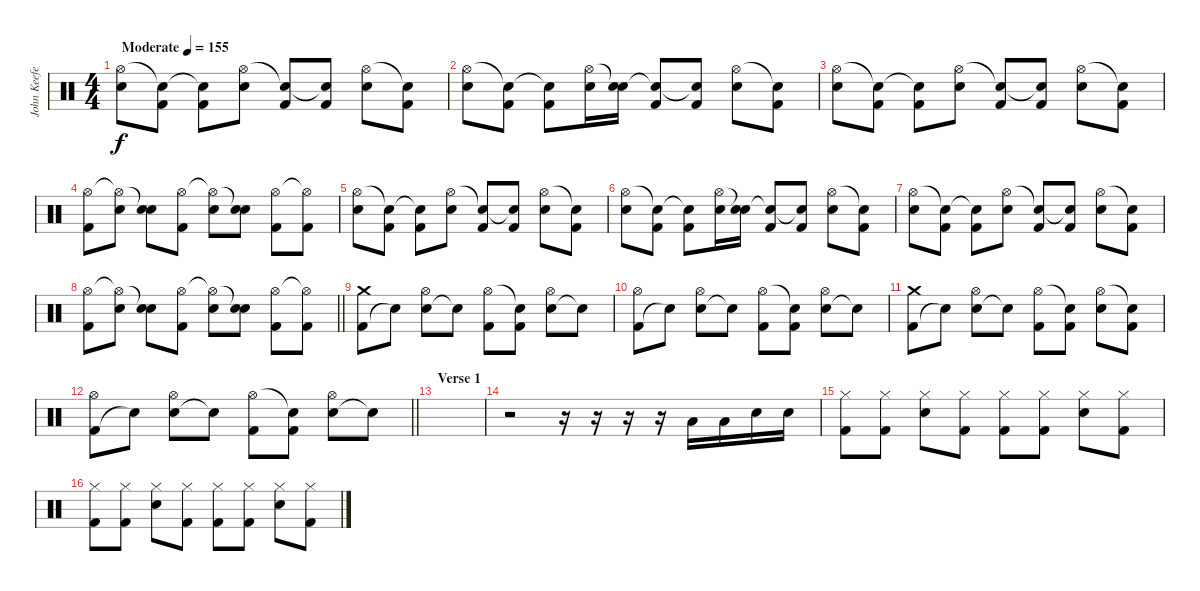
\track ("John Keefe (Percussion)" "John Keefe") {instrument percussion}
\staff {score}
\articulation defaults
\ts (4 4)
\tempo (155 "Moderate")
\clef neutral
\ks c
("Electric Snare (hit)" "Hi-Hat (open)").8{dy f} ("Kick (hit) 2" "Snare (hit)"{t}).8 ("Kick (hit) 2" "Snare (hit)"{t}).8 ("Electric Snare (hit)" "Hi-Hat (open)").8 ("Kick (hit) 2" "Snare (hit)"{t}).8 ("Kick (hit) 2" "Snare (hit)"{t}).8 ("Electric Snare (hit)" "Hi-Hat (open)").8 ("Kick (hit) 2" "Snare (hit)"{t}).8 |
("Electric Snare (hit)" "Hi-Hat (open)").8 ("Kick (hit) 2" "Snare (hit)"{t}).8 ("Kick (hit) 2" "Snare (hit)"{t}).8 ("Electric Snare (hit)" "Hi-Hat (open)").16 ("Electric Snare (hit)" "Snare (hit)"{t}).16 ("Kick (hit) 2" "Snare (hit)"{t}).8 ("Kick (hit) 2" "Snare (hit)"{t}).8 ("Electric Snare (hit)" "Hi-Hat (open)").8 ("Kick (hit) 2" "Snare (hit)"{t}).8 |
("Electric Snare (hit)" "Hi-Hat (open)").8 ("Kick (hit) 2" "Snare (hit)"{t}).8 ("Kick (hit) 2" "Snare (hit)"{t}).8 ("Electric Snare (hit)" "Hi-Hat (open)").8 ("Kick (hit) 2" "Snare (hit)"{t}).8 ("Kick (hit) 2" "Snare (hit)"{t}).8 ("Electric Snare (hit)" "Hi-Hat (open)").8 ("Kick (hit) 2" "Snare (hit)"{t}).8 |
("Kick (hit) 2" "Hi-Hat (open)").8 ("Electric Snare (hit)" "Hi-Hat (open)"{t}).8 ("Electric Snare (hit)" "Snare (hit)"{t}).8 ("Kick (hit) 2" "Hi-Hat (open)").8 ("Electric Snare (hit)" "Hi-Hat (open)"{t}).8 ("Electric Snare (hit)" "Snare (hit)"{t}).8 ("Kick (hit) 2" "Hi-Hat (open)").8 ("Kick (hit) 2" "Hi-Hat (open)"{t}).8 |
("Electric Snare (hit)" "Hi-Hat (open)").8 ("Kick (hit) 2" "Snare (hit)"{t}).8 ("Kick (hit) 2" "Snare (hit)"{t}).8 ("Electric Snare (hit)" "Hi-Hat (open)").8 ("Kick (hit) 2" "Snare (hit)"{t}).8 ("Kick (hit) 2" "Snare (hit)"{t}).8 ("Electric Snare (hit)" "Hi-Hat (open)").8 ("Kick (hit) 2" "Snare (hit)"{t}).8 |
("Electric Snare (hit)" "Hi-Hat (open)").8 ("Kick (hit) 2" "Snare (hit)"{t}).8 ("Kick (hit) 2" "Snare (hit)"{t}).8 ("Electric Snare (hit)" "Hi-Hat (open)").16 ("Electric Snare (hit)" "Snare (hit)"{t}).16 ("Kick (hit) 2" "Snare (hit)"{t}).8 ("Kick (hit) 2" "Snare (hit)"{t}).8 ("Electric Snare (hit)" "Hi-Hat (open)").8 ("Kick (hit) 2" "Snare (hit)"{t}).8 |
("Electric Snare (hit)" "Hi-Hat (open)").8 ("Kick (hit) 2" "Snare (hit)"{t}).8 ("Kick (hit) 2" "Snare (hit)"{t}).8 ("Electric Snare (hit)" "Hi-Hat (open)").8 ("Kick (hit) 2" "Snare (hit)"{t}).8 ("Kick (hit) 2" "Snare (hit)"{t}).8 ("Electric Snare (hit)" "Hi-Hat (open)").8 ("Kick (hit) 2" "Snare (hit)"{t}).8 |
\barLineRight lightlight
("Kick (hit) 2" "Hi-Hat (open)").8 ("Electric Snare (hit)" "Hi-Hat (open)"{t}).8 ("Electric Snare (hit)" "Snare (hit)"{t}).8 ("Kick (hit) 2" "Hi-Hat (open)").8 ("Electric Snare (hit)" "Hi-Hat (open)"{t}).8 ("Electric Snare (hit)" "Snare (hit)"{t}).8 ("Kick (hit) 2" "Hi-Hat (open)").8 ("Kick (hit) 2" "Hi-Hat (open)"{t}).8 |
("Kick (hit) 2" "Crash medium (hit)").8 "Snare (hit)"{t}.8 ("Electric Snare (hit)" "Hi-Hat (open)").8 "Snare (hit)"{t}.8 ("Kick (hit) 2" "Hi-Hat (open)").8 ("Kick (hit) 2" "Snare (hit)"{t}).8 ("Electric Snare (hit)" "Hi-Hat (open)").8 "Snare (hit)"{t}.8 |
("Kick (hit) 2" "Hi-Hat (open)").8 "Snare (hit)"{t}.8 ("Electric Snare (hit)" "Hi-Hat (open)").8 "Snare (hit)"{t}.8 ("Kick (hit) 2" "Hi-Hat (open)").8 ("Kick (hit) 2" "Snare (hit)"{t}).8 ("Electric Snare (hit)" "Hi-Hat (open)").8 "Snare (hit)"{t}.8 |
("Kick (hit) 2" "Crash medium (hit)").8 "Snare (hit)"{t}.8 ("Electric Snare (hit)" "Hi-Hat (open)").8 "Snare (hit)"{t}.8 ("Kick (hit) 2" "Hi-Hat (open)").8 ("Kick (hit) 2" "Snare (hit)"{t}).8 ("Electric Snare (hit)" "Hi-Hat (open)").8 ("Kick (hit) 2" "Snare (hit)"{t}).8 |
\barLineRight lightlight
("Kick (hit) 2" "Hi-Hat (open)").8 "Snare (hit)"{t}.8 ("Electric Snare (hit)" "Hi-Hat (open)").8 "Snare (hit)"{t}.8 ("Kick (hit) 2" "Hi-Hat (open)").8 ("Kick (hit) 2" "Snare (hit)"{t}).8 ("Electric Snare (hit)" "Hi-Hat (open)").8 "Snare (hit)"{t}.8 |
\section ("" "Verse 1")
|
r.2 r.16 r.16 r.16 r.16 "Low Tom (hit)".16 "Low Tom (hit)".16 "Electric Snare (hit)".16 "Electric Snare (hit)".16 |
("Kick (hit) 2" "Hi-Hat (closed)").8 ("Kick (hit) 2" "Hi-Hat (closed)").8 ("Electric Snare (hit)" "Hi-Hat (closed)").8 ("Kick (hit) 2" "Hi-Hat (closed)").8 ("Kick (hit) 2" "Hi-Hat (closed)").8 ("Kick (hit) 2" "Hi-Hat (closed)").8 ("Electric Snare (hit)" "Hi-Hat (closed)").8 ("Kick (hit) 2" "Hi-Hat (closed)").8 |
("Kick (hit) 2" "Hi-Hat (closed)").8 ("Kick (hit) 2" "Hi-Hat (closed)").8 ("Electric Snare (hit)" "Hi-Hat (closed)").8 ("Kick (hit) 2" "Hi-Hat (closed)").8 ("Kick (hit) 2" "Hi-Hat (closed)").8 ("Kick (hit) 2" "Hi-Hat (closed)").8 ("Electric Snare (hit)" "Hi-Hat (closed)").8 ("Kick (hit) 2" "Hi-Hat (closed)").8
